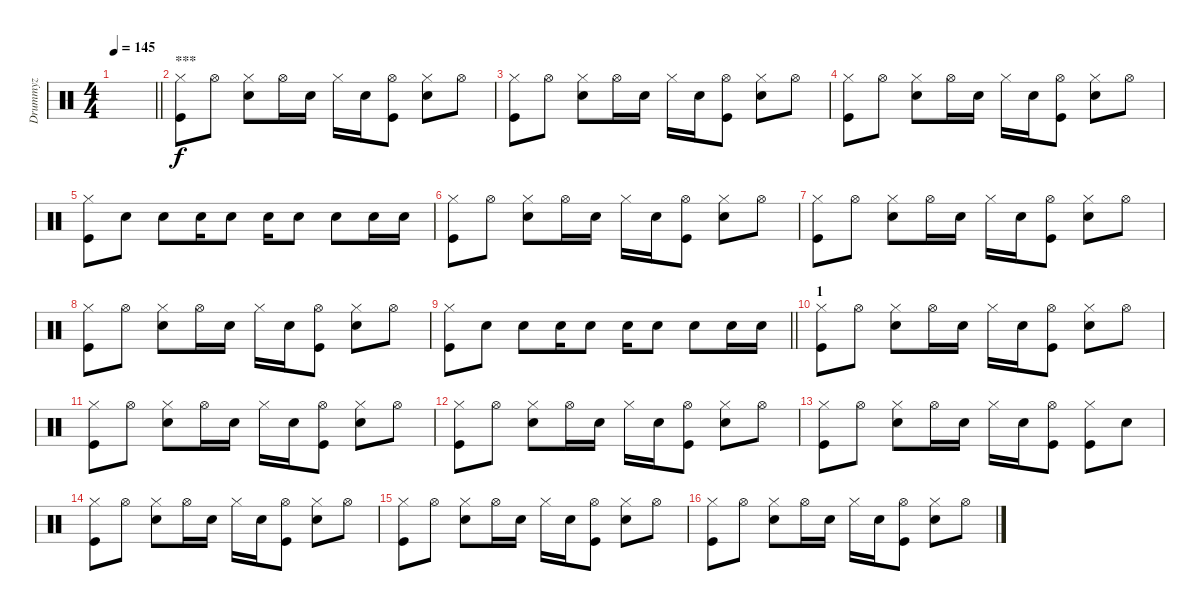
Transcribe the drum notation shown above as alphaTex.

\track ("Drummyz" "Drummyz") {instrument percussion}
\staff {score}
\articulation defaults
\ts (4 4)
\tempo 145
\clef neutral
\barLineRight lightlight
\ks c
|
\section ("" "***")
("Kick (hit)" "Hi-Hat (closed)").8 "Hi-Hat (open)".8 ("Hi-Hat (closed)" "Snare (hit) 2").8 "Hi-Hat (open)".16 "Snare (hit) 2".16 "Hi-Hat (closed)".16 "Snare (hit) 2".16 ("Kick (hit)" "Hi-Hat (open)").8 ("Snare (hit) 2" "Hi-Hat (closed)").8 "Hi-Hat (open)".8 |
("Kick (hit)" "Hi-Hat (closed)").8 "Hi-Hat (open)".8 ("Hi-Hat (closed)" "Snare (hit) 2").8 "Hi-Hat (open)".16 "Snare (hit) 2".16 "Hi-Hat (closed)".16 "Snare (hit) 2".16 ("Kick (hit)" "Hi-Hat (open)").8 ("Snare (hit) 2" "Hi-Hat (closed)").8 "Hi-Hat (open)".8 |
("Kick (hit)" "Hi-Hat (closed)").8 "Hi-Hat (open)".8 ("Hi-Hat (closed)" "Snare (hit) 2").8 "Hi-Hat (open)".16 "Snare (hit) 2".16 "Hi-Hat (closed)".16 "Snare (hit) 2".16 ("Kick (hit)" "Hi-Hat (open)").8 ("Snare (hit) 2" "Hi-Hat (closed)").8 "Hi-Hat (open)".8 |
("Kick (hit)" "Hi-Hat (closed)").8 "Snare (hit) 2".8 "Snare (hit) 2".8 "Snare (hit) 2".16 "Snare (hit) 2".8 "Snare (hit) 2".16 "Snare (hit) 2".8 "Snare (hit) 2".8 "Snare (hit) 2".16 "Snare (hit) 2".16 |
("Kick (hit)" "Hi-Hat (closed)").8 "Hi-Hat (open)".8 ("Hi-Hat (closed)" "Snare (hit) 2").8 "Hi-Hat (open)".16 "Snare (hit) 2".16 "Hi-Hat (closed)".16 "Snare (hit) 2".16 ("Kick (hit)" "Hi-Hat (open)").8 ("Snare (hit) 2" "Hi-Hat (closed)").8 "Hi-Hat (open)".8 |
("Kick (hit)" "Hi-Hat (closed)").8 "Hi-Hat (open)".8 ("Hi-Hat (closed)" "Snare (hit) 2").8 "Hi-Hat (open)".16 "Snare (hit) 2".16 "Hi-Hat (closed)".16 "Snare (hit) 2".16 ("Kick (hit)" "Hi-Hat (open)").8 ("Snare (hit) 2" "Hi-Hat (closed)").8 "Hi-Hat (open)".8 |
("Kick (hit)" "Hi-Hat (closed)").8 "Hi-Hat (open)".8 ("Hi-Hat (closed)" "Snare (hit) 2").8 "Hi-Hat (open)".16 "Snare (hit) 2".16 "Hi-Hat (closed)".16 "Snare (hit) 2".16 ("Kick (hit)" "Hi-Hat (open)").8 ("Snare (hit) 2" "Hi-Hat (closed)").8 "Hi-Hat (open)".8 |
\barLineRight lightlight
("Kick (hit)" "Hi-Hat (closed)").8 "Snare (hit) 2".8 "Snare (hit) 2".8 "Snare (hit) 2".16 "Snare (hit) 2".8 "Snare (hit) 2".16 "Snare (hit) 2".8 "Snare (hit) 2".8 "Snare (hit) 2".16 "Snare (hit) 2".16 |
\section ("" "1")
("Kick (hit)" "Hi-Hat (closed)").8 "Hi-Hat (open)".8 ("Hi-Hat (closed)" "Snare (hit) 2").8 "Hi-Hat (open)".16 "Snare (hit) 2".16 "Hi-Hat (closed)".16 "Snare (hit) 2".16 ("Kick (hit)" "Hi-Hat (open)").8 ("Snare (hit) 2" "Hi-Hat (closed)").8 "Hi-Hat (open)".8 |
("Kick (hit)" "Hi-Hat (closed)").8 "Hi-Hat (open)".8 ("Hi-Hat (closed)" "Snare (hit) 2").8 "Hi-Hat (open)".16 "Snare (hit) 2".16 "Hi-Hat (closed)".16 "Snare (hit) 2".16 ("Kick (hit)" "Hi-Hat (open)").8 ("Snare (hit) 2" "Hi-Hat (closed)").8 "Hi-Hat (open)".8 |
("Kick (hit)" "Hi-Hat (closed)").8 "Hi-Hat (open)".8 ("Hi-Hat (closed)" "Snare (hit) 2").8 "Hi-Hat (open)".16 "Snare (hit) 2".16 "Hi-Hat (closed)".16 "Snare (hit) 2".16 ("Kick (hit)" "Hi-Hat (open)").8 ("Snare (hit) 2" "Hi-Hat (closed)").8 "Hi-Hat (open)".8 |
("Kick (hit)" "Hi-Hat (closed)").8 "Hi-Hat (open)".8 ("Hi-Hat (closed)" "Snare (hit) 2").8 "Hi-Hat (open)".16 "Snare (hit) 2".16 "Hi-Hat (closed)".16 "Snare (hit) 2".16 ("Kick (hit)" "Hi-Hat (open)").8 ("Kick (hit)" "Hi-Hat (closed)").8 "Snare (hit) 2".8 |
("Kick (hit)" "Hi-Hat (closed)").8 "Hi-Hat (open)".8 ("Hi-Hat (closed)" "Snare (hit) 2").8 "Hi-Hat (open)".16 "Snare (hit) 2".16 "Hi-Hat (closed)".16 "Snare (hit) 2".16 ("Kick (hit)" "Hi-Hat (open)").8 ("Snare (hit) 2" "Hi-Hat (closed)").8 "Hi-Hat (open)".8 |
("Kick (hit)" "Hi-Hat (closed)").8 "Hi-Hat (open)".8 ("Hi-Hat (closed)" "Snare (hit) 2").8 "Hi-Hat (open)".16 "Snare (hit) 2".16 "Hi-Hat (closed)".16 "Snare (hit) 2".16 ("Kick (hit)" "Hi-Hat (open)").8 ("Snare (hit) 2" "Hi-Hat (closed)").8 "Hi-Hat (open)".8 |
("Kick (hit)" "Hi-Hat (closed)").8 "Hi-Hat (open)".8 ("Hi-Hat (closed)" "Snare (hit) 2").8 "Hi-Hat (open)".16 "Snare (hit) 2".16 "Hi-Hat (closed)".16 "Snare (hit) 2".16 ("Kick (hit)" "Hi-Hat (open)").8 ("Snare (hit) 2" "Hi-Hat (closed)").8 "Hi-Hat (open)".8
